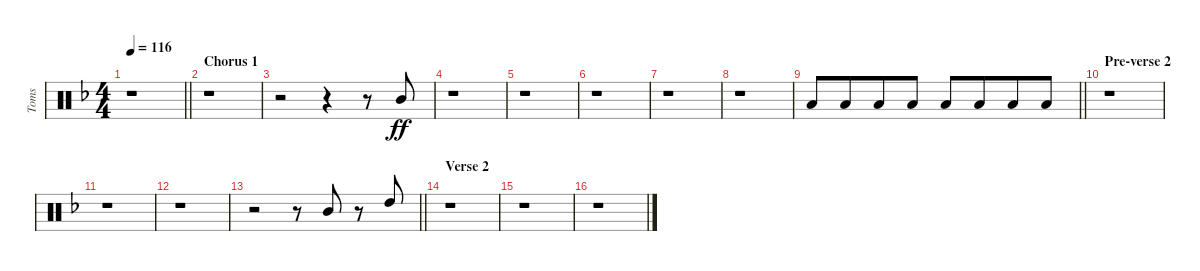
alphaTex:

\track ("Toms" "Toms") {instrument percussion}
\staff {score}
\articulation defaults
\ts (4 4)
\tempo 116
\clef neutral
\barLineRight lightlight
\ks f
r.1{dy ff} |
\section ("" "Chorus 1")
r.1 |
r.2 r.4 r.8 "Mid Tom (hit)".8{beam Up} |
r.1 |
r.1 |
r.1 |
r.1 |
r.1 |
\barLineRight lightlight "Low Tom (hit)".8{balance 4 beam Up} "Low Tom (hit)".8{beam Up beam merge} "Low Tom (hit)".8{beam Up} "Low Tom (hit)".8{beam Up} "Low Tom (hit)".8{beam Up} "Low Tom (hit)".8{beam Up beam merge} "Low Tom (hit)".8{beam Up} "Low Tom (hit)".8{beam Up}
|
\section ("" "Pre-verse 2")
r.1 |
r.1 |
r.1 |
\barLineRight lightlight
r.2 r.8{balance 10} "Mid Tom (hit)".8{beam Up} r.8 "High Tom (hit)".8{beam Up} |
\section ("" "Verse 2")
r.1 |
r.1 |
r.1
